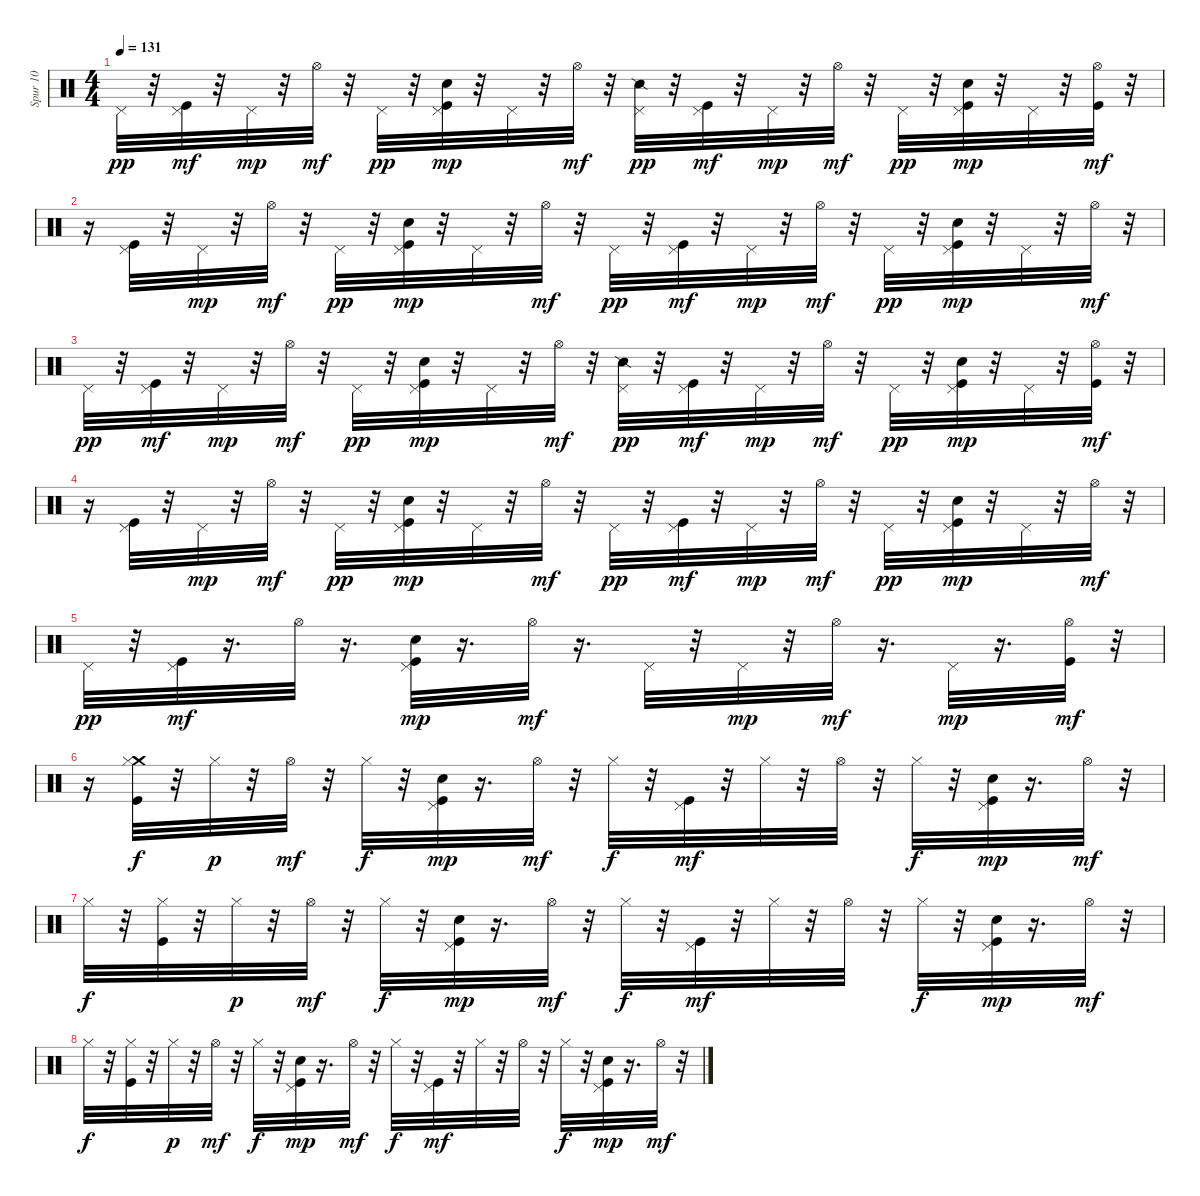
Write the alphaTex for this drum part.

\track ("Spur 10" "Spur 10") {instrument percussion}
\staff {score}
\articulation defaults
\ts (4 4)
\tempo 131
\clef neutral
\ks c "Pedal Hi-Hat (hit)".32{dy pp}
r.32 ("Kick (hit)" "Pedal Hi-Hat (hit)").32{dy mf} r.32 "Pedal Hi-Hat (hit)".32{dy mp} r.32 "Hi-Hat (open)".32{dy mf} r.32 "Pedal Hi-Hat (hit)".32{dy pp} r.32 ("Kick (hit)" "Hand Clap (hit)" "Pedal Hi-Hat (hit)").32{dy mp} r.32 "Pedal Hi-Hat (hit)".32 r.32 "Hi-Hat (open)".32{dy mf} r.32 ("Pedal Hi-Hat (hit)" "Snare (side stick) 2").32{dy pp} r.32 ("Kick (hit)" "Pedal Hi-Hat (hit)").32{dy mf} r.32 "Pedal Hi-Hat (hit)".32{dy mp} r.32 "Hi-Hat (open)".32{dy mf} r.32 "Pedal Hi-Hat (hit)".32{dy pp} r.32 ("Kick (hit)" "Hand Clap (hit)" "Pedal Hi-Hat (hit)").32{dy mp} r.32 "Pedal Hi-Hat (hit)".32 r.32 ("Kick (hit)" "Hi-Hat (open)").32{dy mf} r.32 |
r.16 ("Kick (hit)" "Pedal Hi-Hat (hit)").32 r.32 "Pedal Hi-Hat (hit)".32{dy mp} r.32 "Hi-Hat (open)".32{dy mf} r.32 "Pedal Hi-Hat (hit)".32{dy pp} r.32 ("Kick (hit)" "Hand Clap (hit)" "Pedal Hi-Hat (hit)").32{dy mp} r.32 "Pedal Hi-Hat (hit)".32 r.32 "Hi-Hat (open)".32{dy mf} r.32 "Pedal Hi-Hat (hit)".32{dy pp} r.32 ("Kick (hit)" "Pedal Hi-Hat (hit)").32{dy mf} r.32 "Pedal Hi-Hat (hit)".32{dy mp} r.32 "Hi-Hat (open)".32{dy mf} r.32 "Pedal Hi-Hat (hit)".32{dy pp} r.32 ("Kick (hit)" "Hand Clap (hit)" "Pedal Hi-Hat (hit)").32{dy mp} r.32 "Pedal Hi-Hat (hit)".32 r.32 "Hi-Hat (open)".32{dy mf} r.32 |
"Pedal Hi-Hat (hit)".32{dy pp} r.32 ("Kick (hit)" "Pedal Hi-Hat (hit)").32{dy mf} r.32 "Pedal Hi-Hat (hit)".32{dy mp} r.32 "Hi-Hat (open)".32{dy mf} r.32 "Pedal Hi-Hat (hit)".32{dy pp} r.32 ("Kick (hit)" "Hand Clap (hit)" "Pedal Hi-Hat (hit)").32{dy mp} r.32 "Pedal Hi-Hat (hit)".32 r.32 "Hi-Hat (open)".32{dy mf} r.32 ("Pedal Hi-Hat (hit)" "Snare (side stick) 2").32{dy pp} r.32 ("Kick (hit)" "Pedal Hi-Hat (hit)").32{dy mf} r.32 "Pedal Hi-Hat (hit)".32{dy mp} r.32 "Hi-Hat (open)".32{dy mf} r.32 "Pedal Hi-Hat (hit)".32{dy pp} r.32 ("Kick (hit)" "Hand Clap (hit)" "Pedal Hi-Hat (hit)").32{dy mp} r.32 "Pedal Hi-Hat (hit)".32 r.32 ("Kick (hit)" "Hi-Hat (open)").32{dy mf} r.32 |
r.16 ("Kick (hit)" "Pedal Hi-Hat (hit)").32 r.32 "Pedal Hi-Hat (hit)".32{dy mp} r.32 "Hi-Hat (open)".32{dy mf} r.32 "Pedal Hi-Hat (hit)".32{dy pp} r.32 ("Kick (hit)" "Hand Clap (hit)" "Pedal Hi-Hat (hit)").32{dy mp} r.32 "Pedal Hi-Hat (hit)".32 r.32 "Hi-Hat (open)".32{dy mf} r.32 "Pedal Hi-Hat (hit)".32{dy pp} r.32 ("Kick (hit)" "Pedal Hi-Hat (hit)").32{dy mf} r.32 "Pedal Hi-Hat (hit)".32{dy mp} r.32 "Hi-Hat (open)".32{dy mf} r.32 "Pedal Hi-Hat (hit)".32{dy pp} r.32 ("Kick (hit)" "Hand Clap (hit)" "Pedal Hi-Hat (hit)").32{dy mp} r.32 "Pedal Hi-Hat (hit)".32 r.32 "Hi-Hat (open)".32{dy mf} r.32 |
"Pedal Hi-Hat (hit)".32{dy pp} r.32 ("Kick (hit)" "Pedal Hi-Hat (hit)").32{dy mf} r.16{d} "Hi-Hat (open)".32 r.16{d} ("Kick (hit)" "Hand Clap (hit)" "Pedal Hi-Hat (hit)").32{dy mp} r.16{d} "Hi-Hat (open)".32{dy mf} r.16{d} "Pedal Hi-Hat (hit)".32 r.32 "Pedal Hi-Hat (hit)".32{dy mp} r.32 "Hi-Hat (open)".32{dy mf} r.16{d} "Pedal Hi-Hat (hit)".32{dy mp} r.16{d} ("Kick (hit)" "Hi-Hat (open)").32{dy mf} r.32 |
r.16 ("Crash medium (hit)" "Kick (hit)" "Hi-Hat (closed)").32{dy f} r.32 "Hi-Hat (closed)".32{dy p} r.32 "Hi-Hat (open)".32{dy mf} r.32 "Hi-Hat (closed)".32{dy f} r.32 ("Kick (hit)" "Hand Clap (hit)" "Pedal Hi-Hat (hit)").32{dy mp} r.16{d} "Hi-Hat (open)".32{dy mf} r.32 "Hi-Hat (closed)".32{dy f} r.32 ("Kick (hit)" "Pedal Hi-Hat (hit)").32{dy mf} r.32 "Hi-Hat (closed)".32 r.32 "Hi-Hat (open)".32 r.32 "Hi-Hat (closed)".32{dy f} r.32 ("Kick (hit)" "Hand Clap (hit)" "Pedal Hi-Hat (hit)").32{dy mp} r.16{d} "Hi-Hat (open)".32{dy mf} r.32 |
"Hi-Hat (closed)".32{dy f} r.32 ("Kick (hit)" "Hi-Hat (closed)").32 r.32 "Hi-Hat (closed)".32{dy p} r.32 "Hi-Hat (open)".32{dy mf} r.32 "Hi-Hat (closed)".32{dy f} r.32 ("Kick (hit)" "Hand Clap (hit)" "Pedal Hi-Hat (hit)").32{dy mp} r.16{d} "Hi-Hat (open)".32{dy mf} r.32 "Hi-Hat (closed)".32{dy f} r.32 ("Kick (hit)" "Pedal Hi-Hat (hit)").32{dy mf} r.32 "Hi-Hat (closed)".32 r.32 "Hi-Hat (open)".32 r.32 "Hi-Hat (closed)".32{dy f} r.32 ("Kick (hit)" "Hand Clap (hit)" "Pedal Hi-Hat (hit)").32{dy mp} r.16{d} "Hi-Hat (open)".32{dy mf} r.32 |
"Hi-Hat (closed)".32{dy f} r.32 ("Kick (hit)" "Hi-Hat (closed)").32 r.32 "Hi-Hat (closed)".32{dy p} r.32 "Hi-Hat (open)".32{dy mf} r.32 "Hi-Hat (closed)".32{dy f} r.32 ("Kick (hit)" "Hand Clap (hit)" "Pedal Hi-Hat (hit)").32{dy mp} r.16{d} "Hi-Hat (open)".32{dy mf} r.32 "Hi-Hat (closed)".32{dy f} r.32 ("Kick (hit)" "Pedal Hi-Hat (hit)").32{dy mf} r.32 "Hi-Hat (closed)".32 r.32 "Hi-Hat (open)".32 r.32 "Hi-Hat (closed)".32{dy f} r.32 ("Kick (hit)" "Hand Clap (hit)" "Pedal Hi-Hat (hit)").32{dy mp} r.16{d} "Hi-Hat (open)".32{dy mf} r.32
